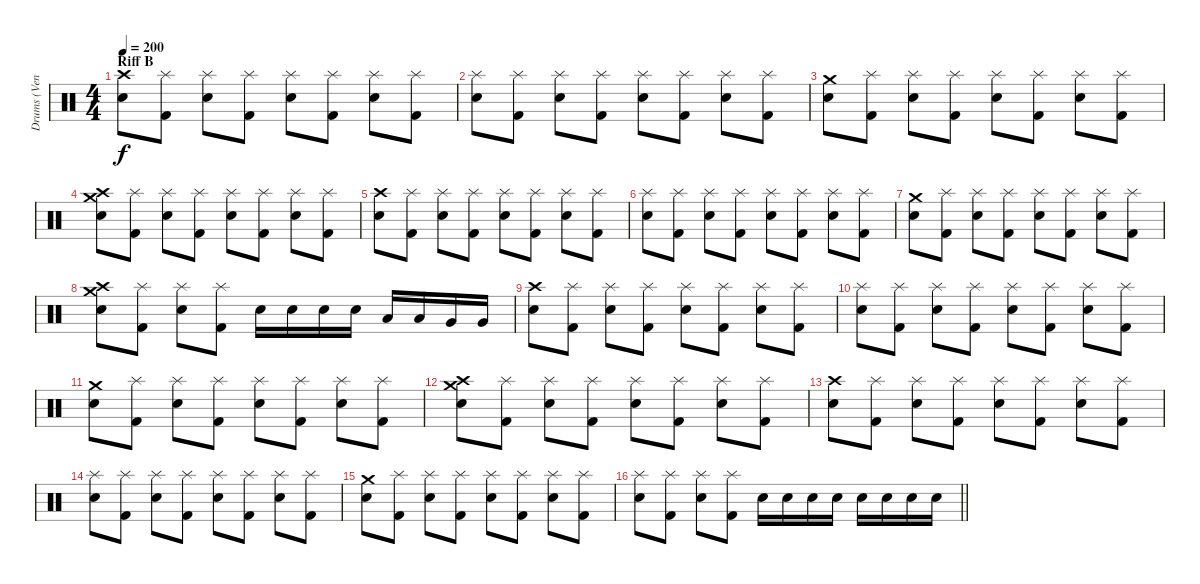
\track ("Drums (Ventor)" "Drums (Ven") {instrument percussion}
\staff {score}
\articulation defaults
\ts (4 4)
\section ("" "Riff B")
\tempo 200
\clef neutral
\ks c
("Electric Snare (hit)" "Crash high (hit)").8{dy f} ("Splash (hit)" "Kick (hit) 2").8 ("Electric Snare (hit)" "Splash (hit)").8 ("Splash (hit)" "Kick (hit) 2").8 ("Electric Snare (hit)" "Splash (hit)").8 ("Splash (hit)" "Kick (hit) 2").8 ("Electric Snare (hit)" "Splash (hit)").8 ("Splash (hit)" "Kick (hit) 2").8 |
("Electric Snare (hit)" "Splash (hit)").8 ("Splash (hit)" "Kick (hit) 2").8 ("Electric Snare (hit)" "Splash (hit)").8 ("Splash (hit)" "Kick (hit) 2").8 ("Electric Snare (hit)" "Splash (hit)").8 ("Splash (hit)" "Kick (hit) 2").8 ("Electric Snare (hit)" "Splash (hit)").8 ("Splash (hit)" "Kick (hit) 2").8 |
("Electric Snare (hit)" "Crash medium (hit)").8 ("Splash (hit)" "Kick (hit) 2").8 ("Electric Snare (hit)" "Splash (hit)").8 ("Splash (hit)" "Kick (hit) 2").8 ("Electric Snare (hit)" "Splash (hit)").8 ("Splash (hit)" "Kick (hit) 2").8 ("Electric Snare (hit)" "Splash (hit)").8 ("Splash (hit)" "Kick (hit) 2").8 |
("Electric Snare (hit)" "Crash medium (hit)" "Crash high (hit)").8 ("Splash (hit)" "Kick (hit) 2").8 ("Electric Snare (hit)" "Splash (hit)").8 ("Splash (hit)" "Kick (hit) 2").8 ("Electric Snare (hit)" "Splash (hit)").8 ("Splash (hit)" "Kick (hit) 2").8 ("Electric Snare (hit)" "Splash (hit)").8 ("Splash (hit)" "Kick (hit) 2").8 |
("Electric Snare (hit)" "Crash high (hit)").8 ("Splash (hit)" "Kick (hit) 2").8 ("Electric Snare (hit)" "Splash (hit)").8 ("Splash (hit)" "Kick (hit) 2").8 ("Electric Snare (hit)" "Splash (hit)").8 ("Splash (hit)" "Kick (hit) 2").8 ("Electric Snare (hit)" "Splash (hit)").8 ("Splash (hit)" "Kick (hit) 2").8 |
("Electric Snare (hit)" "Splash (hit)").8 ("Splash (hit)" "Kick (hit) 2").8 ("Electric Snare (hit)" "Splash (hit)").8 ("Splash (hit)" "Kick (hit) 2").8 ("Electric Snare (hit)" "Splash (hit)").8 ("Splash (hit)" "Kick (hit) 2").8 ("Electric Snare (hit)" "Splash (hit)").8 ("Splash (hit)" "Kick (hit) 2").8 |
("Electric Snare (hit)" "Crash medium (hit)").8 ("Splash (hit)" "Kick (hit) 2").8 ("Electric Snare (hit)" "Splash (hit)").8 ("Splash (hit)" "Kick (hit) 2").8 ("Electric Snare (hit)" "Splash (hit)").8 ("Splash (hit)" "Kick (hit) 2").8 ("Electric Snare (hit)" "Splash (hit)").8 ("Splash (hit)" "Kick (hit) 2").8 |
("Electric Snare (hit)" "Crash medium (hit)" "Crash high (hit)").8 ("Splash (hit)" "Kick (hit) 2").8 ("Electric Snare (hit)" "Splash (hit)").8 ("Splash (hit)" "Kick (hit) 2").8 "Electric Snare (hit)".16 "Electric Snare (hit)".16 "Electric Snare (hit)".16 "Electric Snare (hit)".16 "Low Tom (hit)".16 "Low Tom (hit)".16 "Very Low Tom (hit)".16 "Very Low Tom (hit)".16 |
("Electric Snare (hit)" "Crash high (hit)").8 ("Splash (hit)" "Kick (hit) 2").8 ("Electric Snare (hit)" "Splash (hit)").8 ("Splash (hit)" "Kick (hit) 2").8 ("Electric Snare (hit)" "Splash (hit)").8 ("Splash (hit)" "Kick (hit) 2").8 ("Electric Snare (hit)" "Splash (hit)").8 ("Splash (hit)" "Kick (hit) 2").8 |
("Electric Snare (hit)" "Splash (hit)").8 ("Splash (hit)" "Kick (hit) 2").8 ("Electric Snare (hit)" "Splash (hit)").8 ("Splash (hit)" "Kick (hit) 2").8 ("Electric Snare (hit)" "Splash (hit)").8 ("Splash (hit)" "Kick (hit) 2").8 ("Electric Snare (hit)" "Splash (hit)").8 ("Splash (hit)" "Kick (hit) 2").8 |
("Electric Snare (hit)" "Crash medium (hit)").8 ("Splash (hit)" "Kick (hit) 2").8 ("Electric Snare (hit)" "Splash (hit)").8 ("Splash (hit)" "Kick (hit) 2").8 ("Electric Snare (hit)" "Splash (hit)").8 ("Splash (hit)" "Kick (hit) 2").8 ("Electric Snare (hit)" "Splash (hit)").8 ("Splash (hit)" "Kick (hit) 2").8 |
("Electric Snare (hit)" "Crash medium (hit)" "Crash high (hit)").8 ("Splash (hit)" "Kick (hit) 2").8 ("Electric Snare (hit)" "Splash (hit)").8 ("Splash (hit)" "Kick (hit) 2").8 ("Electric Snare (hit)" "Splash (hit)").8 ("Splash (hit)" "Kick (hit) 2").8 ("Electric Snare (hit)" "Splash (hit)").8 ("Splash (hit)" "Kick (hit) 2").8 |
("Electric Snare (hit)" "Crash high (hit)").8 ("Splash (hit)" "Kick (hit) 2").8 ("Electric Snare (hit)" "Splash (hit)").8 ("Splash (hit)" "Kick (hit) 2").8 ("Electric Snare (hit)" "Splash (hit)").8 ("Splash (hit)" "Kick (hit) 2").8 ("Electric Snare (hit)" "Splash (hit)").8 ("Splash (hit)" "Kick (hit) 2").8 |
("Electric Snare (hit)" "Splash (hit)").8 ("Splash (hit)" "Kick (hit) 2").8 ("Electric Snare (hit)" "Splash (hit)").8 ("Splash (hit)" "Kick (hit) 2").8 ("Electric Snare (hit)" "Splash (hit)").8 ("Splash (hit)" "Kick (hit) 2").8 ("Electric Snare (hit)" "Splash (hit)").8 ("Splash (hit)" "Kick (hit) 2").8 |
("Electric Snare (hit)" "Crash medium (hit)").8 ("Splash (hit)" "Kick (hit) 2").8 ("Electric Snare (hit)" "Splash (hit)").8 ("Splash (hit)" "Kick (hit) 2").8 ("Electric Snare (hit)" "Splash (hit)").8 ("Splash (hit)" "Kick (hit) 2").8 ("Electric Snare (hit)" "Splash (hit)").8 ("Splash (hit)" "Kick (hit) 2").8 |
\barLineRight lightlight
("Electric Snare (hit)" "Splash (hit)").8 ("Splash (hit)" "Kick (hit) 2").8 ("Electric Snare (hit)" "Splash (hit)").8 ("Splash (hit)" "Kick (hit) 2").8 "Electric Snare (hit)".16 "Electric Snare (hit)".16 "Electric Snare (hit)".16 "Electric Snare (hit)".16 "Electric Snare (hit)".16 "Electric Snare (hit)".16 "Electric Snare (hit)".16 "Electric Snare (hit)".16
